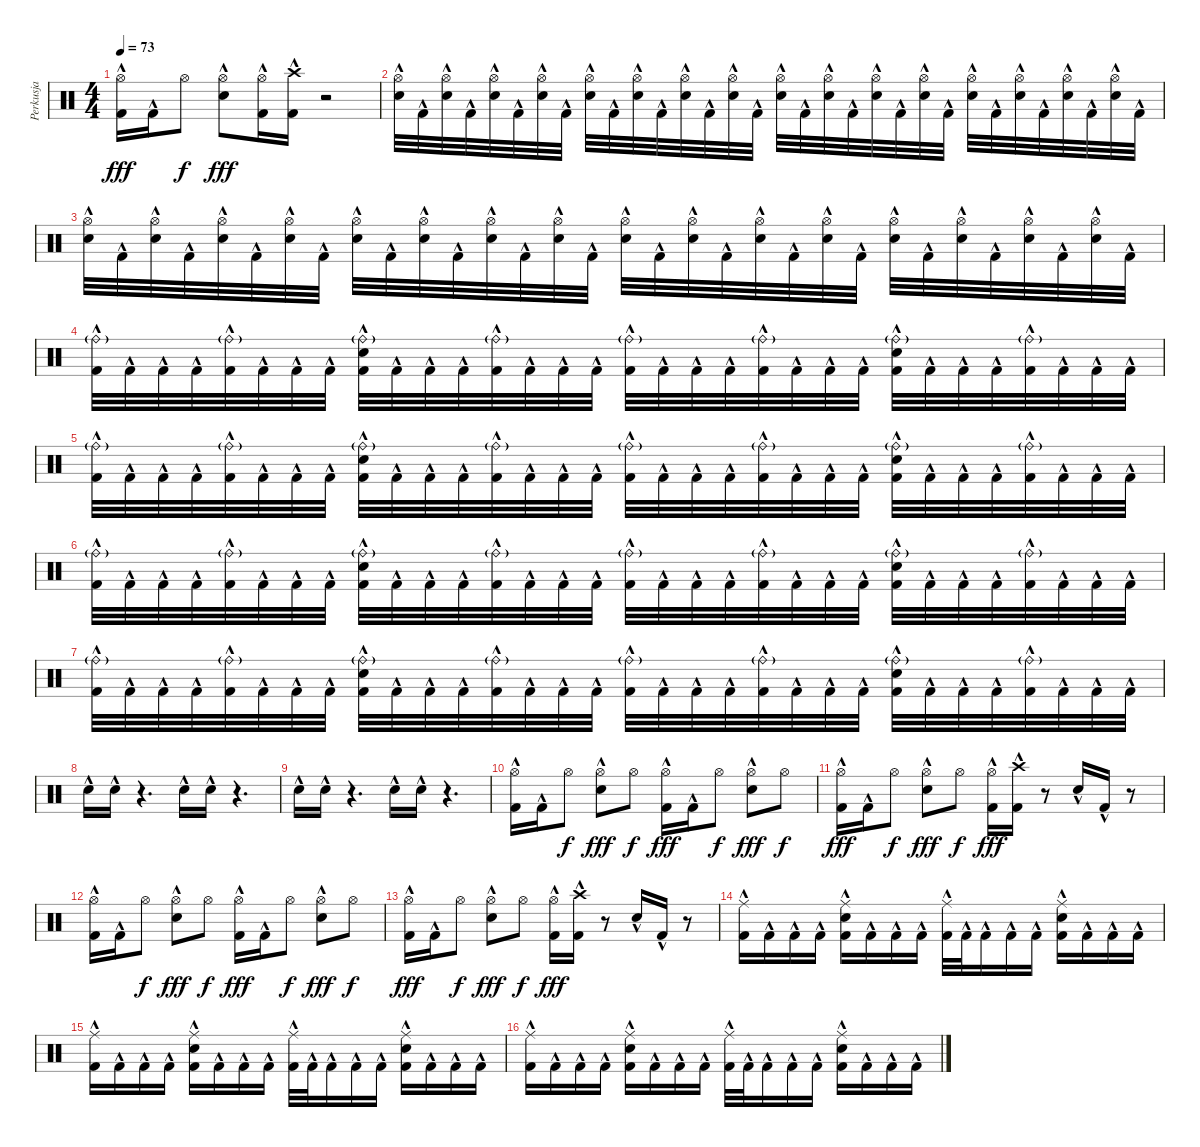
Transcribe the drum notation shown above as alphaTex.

\track ("Perkusja" "Perkusja") {instrument percussion}
\staff {score}
\articulation defaults
\ts (4 4)
\tempo 73
\clef neutral
\ks c
("Hi-Hat (open)" "Kick (hit) 2"{hac}).16{dy fff} "Kick (hit) 2"{hac}.16 "Hi-Hat (open)".8{dy f} ("Hi-Hat (open)" "Electric Snare (hit)"{hac}).8{dy fff} ("Hi-Hat (open)" "Kick (hit) 2"{hac}).16 ("Crash high (hit)" "Kick (hit) 2"{hac}).16 r.2 |
("Hi-Hat (open)" "Electric Snare (hit)"{hac}).32 "Kick (hit) 2"{hac}.32 ("Hi-Hat (open)" "Electric Snare (hit)"{hac}).32 "Kick (hit) 2"{hac}.32 ("Hi-Hat (open)" "Electric Snare (hit)"{hac}).32 "Kick (hit) 2"{hac}.32 ("Hi-Hat (open)" "Electric Snare (hit)"{hac}).32 "Kick (hit) 2"{hac}.32 ("Hi-Hat (open)" "Electric Snare (hit)"{hac}).32 "Kick (hit) 2"{hac}.32 ("Hi-Hat (open)" "Electric Snare (hit)"{hac}).32 "Kick (hit) 2"{hac}.32 ("Hi-Hat (open)" "Electric Snare (hit)"{hac}).32 "Kick (hit) 2"{hac}.32 ("Hi-Hat (open)" "Electric Snare (hit)"{hac}).32 "Kick (hit) 2"{hac}.32 ("Hi-Hat (open)" "Electric Snare (hit)"{hac}).32 "Kick (hit) 2"{hac}.32 ("Hi-Hat (open)" "Electric Snare (hit)"{hac}).32 "Kick (hit) 2"{hac}.32 ("Hi-Hat (open)" "Electric Snare (hit)"{hac}).32 "Kick (hit) 2"{hac}.32 ("Hi-Hat (open)" "Electric Snare (hit)"{hac}).32 "Kick (hit) 2"{hac}.32 ("Hi-Hat (open)" "Electric Snare (hit)"{hac}).32 "Kick (hit) 2"{hac}.32 ("Hi-Hat (open)" "Electric Snare (hit)"{hac}).32 "Kick (hit) 2"{hac}.32 ("Hi-Hat (open)" "Electric Snare (hit)"{hac}).32 "Kick (hit) 2"{hac}.32 ("Hi-Hat (open)" "Electric Snare (hit)"{hac}).32 "Kick (hit) 2"{hac}.32 |
("Hi-Hat (open)" "Electric Snare (hit)"{hac}).32 "Kick (hit) 2"{hac}.32 ("Hi-Hat (open)" "Electric Snare (hit)"{hac}).32 "Kick (hit) 2"{hac}.32 ("Hi-Hat (open)" "Electric Snare (hit)"{hac}).32 "Kick (hit) 2"{hac}.32 ("Hi-Hat (open)" "Electric Snare (hit)"{hac}).32 "Kick (hit) 2"{hac}.32 ("Hi-Hat (open)" "Electric Snare (hit)"{hac}).32 "Kick (hit) 2"{hac}.32 ("Hi-Hat (open)" "Electric Snare (hit)"{hac}).32 "Kick (hit) 2"{hac}.32 ("Hi-Hat (open)" "Electric Snare (hit)"{hac}).32 "Kick (hit) 2"{hac}.32 ("Hi-Hat (open)" "Electric Snare (hit)"{hac}).32 "Kick (hit) 2"{hac}.32 ("Hi-Hat (open)" "Electric Snare (hit)"{hac}).32 "Kick (hit) 2"{hac}.32 ("Hi-Hat (open)" "Electric Snare (hit)"{hac}).32 "Kick (hit) 2"{hac}.32 ("Hi-Hat (open)" "Electric Snare (hit)"{hac}).32 "Kick (hit) 2"{hac}.32 ("Hi-Hat (open)" "Electric Snare (hit)"{hac}).32 "Kick (hit) 2"{hac}.32 ("Hi-Hat (open)" "Electric Snare (hit)"{hac}).32 "Kick (hit) 2"{hac}.32 ("Hi-Hat (open)" "Electric Snare (hit)"{hac}).32 "Kick (hit) 2"{hac}.32 ("Hi-Hat (open)" "Electric Snare (hit)"{hac}).32 "Kick (hit) 2"{hac}.32 ("Hi-Hat (open)" "Electric Snare (hit)"{hac}).32 "Kick (hit) 2"{hac}.32 |
("Ride (bell)"{g} "Kick (hit) 2"{hac}).32 "Kick (hit) 2"{hac}.32 "Kick (hit) 2"{hac}.32 "Kick (hit) 2"{hac}.32 ("Ride (bell)"{g} "Kick (hit) 2"{hac}).32 "Kick (hit) 2"{hac}.32 "Kick (hit) 2"{hac}.32 "Kick (hit) 2"{hac}.32 ("Ride (bell)"{g} "Electric Snare (hit)"{hac} "Kick (hit) 2"{hac}).32 "Kick (hit) 2"{hac}.32 "Kick (hit) 2"{hac}.32 "Kick (hit) 2"{hac}.32 ("Ride (bell)"{g} "Kick (hit) 2"{hac}).32 "Kick (hit) 2"{hac}.32 "Kick (hit) 2"{hac}.32 "Kick (hit) 2"{hac}.32 ("Ride (bell)"{g} "Kick (hit) 2"{hac}).32 "Kick (hit) 2"{hac}.32 "Kick (hit) 2"{hac}.32 "Kick (hit) 2"{hac}.32 ("Ride (bell)"{g} "Kick (hit) 2"{hac}).32 "Kick (hit) 2"{hac}.32 "Kick (hit) 2"{hac}.32 "Kick (hit) 2"{hac}.32 ("Ride (bell)"{g} "Electric Snare (hit)"{hac} "Kick (hit) 2"{hac}).32 "Kick (hit) 2"{hac}.32 "Kick (hit) 2"{hac}.32 "Kick (hit) 2"{hac}.32 ("Ride (bell)"{g} "Kick (hit) 2"{hac}).32 "Kick (hit) 2"{hac}.32 "Kick (hit) 2"{hac}.32 "Kick (hit) 2"{hac}.32 |
("Ride (bell)"{g} "Kick (hit) 2"{hac}).32 "Kick (hit) 2"{hac}.32 "Kick (hit) 2"{hac}.32 "Kick (hit) 2"{hac}.32 ("Ride (bell)"{g} "Kick (hit) 2"{hac}).32 "Kick (hit) 2"{hac}.32 "Kick (hit) 2"{hac}.32 "Kick (hit) 2"{hac}.32 ("Ride (bell)"{g} "Electric Snare (hit)"{hac} "Kick (hit) 2"{hac}).32 "Kick (hit) 2"{hac}.32 "Kick (hit) 2"{hac}.32 "Kick (hit) 2"{hac}.32 ("Ride (bell)"{g} "Kick (hit) 2"{hac}).32 "Kick (hit) 2"{hac}.32 "Kick (hit) 2"{hac}.32 "Kick (hit) 2"{hac}.32 ("Ride (bell)"{g} "Kick (hit) 2"{hac}).32 "Kick (hit) 2"{hac}.32 "Kick (hit) 2"{hac}.32 "Kick (hit) 2"{hac}.32 ("Ride (bell)"{g} "Kick (hit) 2"{hac}).32 "Kick (hit) 2"{hac}.32 "Kick (hit) 2"{hac}.32 "Kick (hit) 2"{hac}.32 ("Ride (bell)"{g} "Electric Snare (hit)"{hac} "Kick (hit) 2"{hac}).32 "Kick (hit) 2"{hac}.32 "Kick (hit) 2"{hac}.32 "Kick (hit) 2"{hac}.32 ("Ride (bell)"{g} "Kick (hit) 2"{hac}).32 "Kick (hit) 2"{hac}.32 "Kick (hit) 2"{hac}.32 "Kick (hit) 2"{hac}.32 |
("Ride (bell)"{g} "Kick (hit) 2"{hac}).32 "Kick (hit) 2"{hac}.32 "Kick (hit) 2"{hac}.32 "Kick (hit) 2"{hac}.32 ("Ride (bell)"{g} "Kick (hit) 2"{hac}).32 "Kick (hit) 2"{hac}.32 "Kick (hit) 2"{hac}.32 "Kick (hit) 2"{hac}.32 ("Ride (bell)"{g} "Electric Snare (hit)"{hac} "Kick (hit) 2"{hac}).32 "Kick (hit) 2"{hac}.32 "Kick (hit) 2"{hac}.32 "Kick (hit) 2"{hac}.32 ("Ride (bell)"{g} "Kick (hit) 2"{hac}).32 "Kick (hit) 2"{hac}.32 "Kick (hit) 2"{hac}.32 "Kick (hit) 2"{hac}.32 ("Ride (bell)"{g} "Kick (hit) 2"{hac}).32 "Kick (hit) 2"{hac}.32 "Kick (hit) 2"{hac}.32 "Kick (hit) 2"{hac}.32 ("Ride (bell)"{g} "Kick (hit) 2"{hac}).32 "Kick (hit) 2"{hac}.32 "Kick (hit) 2"{hac}.32 "Kick (hit) 2"{hac}.32 ("Ride (bell)"{g} "Electric Snare (hit)"{hac} "Kick (hit) 2"{hac}).32 "Kick (hit) 2"{hac}.32 "Kick (hit) 2"{hac}.32 "Kick (hit) 2"{hac}.32 ("Ride (bell)"{g} "Kick (hit) 2"{hac}).32 "Kick (hit) 2"{hac}.32 "Kick (hit) 2"{hac}.32 "Kick (hit) 2"{hac}.32 |
("Ride (bell)"{g} "Kick (hit) 2"{hac}).32 "Kick (hit) 2"{hac}.32 "Kick (hit) 2"{hac}.32 "Kick (hit) 2"{hac}.32 ("Ride (bell)"{g} "Kick (hit) 2"{hac}).32 "Kick (hit) 2"{hac}.32 "Kick (hit) 2"{hac}.32 "Kick (hit) 2"{hac}.32 ("Ride (bell)"{g} "Electric Snare (hit)"{hac} "Kick (hit) 2"{hac}).32 "Kick (hit) 2"{hac}.32 "Kick (hit) 2"{hac}.32 "Kick (hit) 2"{hac}.32 ("Ride (bell)"{g} "Kick (hit) 2"{hac}).32 "Kick (hit) 2"{hac}.32 "Kick (hit) 2"{hac}.32 "Kick (hit) 2"{hac}.32 ("Ride (bell)"{g} "Kick (hit) 2"{hac}).32 "Kick (hit) 2"{hac}.32 "Kick (hit) 2"{hac}.32 "Kick (hit) 2"{hac}.32 ("Ride (bell)"{g} "Kick (hit) 2"{hac}).32 "Kick (hit) 2"{hac}.32 "Kick (hit) 2"{hac}.32 "Kick (hit) 2"{hac}.32 ("Ride (bell)"{g} "Electric Snare (hit)"{hac} "Kick (hit) 2"{hac}).32 "Kick (hit) 2"{hac}.32 "Kick (hit) 2"{hac}.32 "Kick (hit) 2"{hac}.32 ("Ride (bell)"{g} "Kick (hit) 2"{hac}).32 "Kick (hit) 2"{hac}.32 "Kick (hit) 2"{hac}.32 "Kick (hit) 2"{hac}.32 |
"Electric Snare (hit)"{hac}.16 "Electric Snare (hit)"{hac}.16 r.4{d} "Electric Snare (hit)"{hac}.16 "Electric Snare (hit)"{hac}.16 r.4{d} |
"Electric Snare (hit)"{hac}.16 "Electric Snare (hit)"{hac}.16 r.4{d} "Electric Snare (hit)"{hac}.16 "Electric Snare (hit)"{hac}.16 r.4{d} |
("Hi-Hat (open)" "Kick (hit) 2"{hac}).16 "Kick (hit) 2"{hac}.16 "Hi-Hat (open)".8{dy f} ("Hi-Hat (open)" "Electric Snare (hit)"{hac}).8{dy fff} "Hi-Hat (open)".8{dy f} ("Hi-Hat (open)" "Kick (hit) 2"{hac}).16{dy fff} "Kick (hit) 2"{hac}.16 "Hi-Hat (open)".8{dy f} ("Hi-Hat (open)" "Electric Snare (hit)"{hac}).8{dy fff} "Hi-Hat (open)".8{dy f} |
("Hi-Hat (open)" "Kick (hit) 2"{hac}).16{dy fff} "Kick (hit) 2"{hac}.16 "Hi-Hat (open)".8{dy f} ("Hi-Hat (open)" "Electric Snare (hit)"{hac}).8{dy fff} "Hi-Hat (open)".8{dy f} ("Hi-Hat (open)" "Kick (hit) 2"{hac}).16{dy fff} ("Crash high (hit)" "Kick (hit) 2"{hac}).16 r.8 "Electric Snare (hit)"{hac}.16 "Kick (hit) 2"{hac}.16 r.8 |
("Hi-Hat (open)" "Kick (hit) 2"{hac}).16 "Kick (hit) 2"{hac}.16 "Hi-Hat (open)".8{dy f} ("Hi-Hat (open)" "Electric Snare (hit)"{hac}).8{dy fff} "Hi-Hat (open)".8{dy f} ("Hi-Hat (open)" "Kick (hit) 2"{hac}).16{dy fff} "Kick (hit) 2"{hac}.16 "Hi-Hat (open)".8{dy f} ("Hi-Hat (open)" "Electric Snare (hit)"{hac}).8{dy fff} "Hi-Hat (open)".8{dy f} |
("Hi-Hat (open)" "Kick (hit) 2"{hac}).16{dy fff} "Kick (hit) 2"{hac}.16 "Hi-Hat (open)".8{dy f} ("Hi-Hat (open)" "Electric Snare (hit)"{hac}).8{dy fff} "Hi-Hat (open)".8{dy f} ("Hi-Hat (open)" "Kick (hit) 2"{hac}).16{dy fff} ("Crash high (hit)" "Kick (hit) 2"{hac}).16 r.8 "Electric Snare (hit)"{hac}.16 "Kick (hit) 2"{hac}.16 r.8 |
("Ride (middle)" "Kick (hit) 2"{hac}).16 "Kick (hit) 2"{hac}.16 "Kick (hit) 2"{hac}.16 "Kick (hit) 2"{hac}.16 ("Ride (middle)" "Electric Snare (hit)"{hac} "Kick (hit) 2"{hac}).16 "Kick (hit) 2"{hac}.16 "Kick (hit) 2"{hac}.16 "Kick (hit) 2"{hac}.16 ("Ride (middle)" "Kick (hit) 2"{hac}).32 "Kick (hit) 2"{hac}.32 "Kick (hit) 2"{hac}.16 "Kick (hit) 2"{hac}.16 "Kick (hit) 2"{hac}.16 ("Ride (middle)" "Electric Snare (hit)"{hac} "Kick (hit) 2"{hac}).16 "Kick (hit) 2"{hac}.16 "Kick (hit) 2"{hac}.16 "Kick (hit) 2"{hac}.16 |
("Ride (middle)" "Kick (hit) 2"{hac}).16 "Kick (hit) 2"{hac}.16 "Kick (hit) 2"{hac}.16 "Kick (hit) 2"{hac}.16 ("Ride (middle)" "Electric Snare (hit)"{hac} "Kick (hit) 2"{hac}).16 "Kick (hit) 2"{hac}.16 "Kick (hit) 2"{hac}.16 "Kick (hit) 2"{hac}.16 ("Ride (middle)" "Kick (hit) 2"{hac}).32 "Kick (hit) 2"{hac}.32 "Kick (hit) 2"{hac}.16 "Kick (hit) 2"{hac}.16 "Kick (hit) 2"{hac}.16 ("Ride (middle)" "Electric Snare (hit)"{hac} "Kick (hit) 2"{hac}).16 "Kick (hit) 2"{hac}.16 "Kick (hit) 2"{hac}.16 "Kick (hit) 2"{hac}.16 |
("Ride (middle)" "Kick (hit) 2"{hac}).16 "Kick (hit) 2"{hac}.16 "Kick (hit) 2"{hac}.16 "Kick (hit) 2"{hac}.16 ("Ride (middle)" "Electric Snare (hit)"{hac} "Kick (hit) 2"{hac}).16 "Kick (hit) 2"{hac}.16 "Kick (hit) 2"{hac}.16 "Kick (hit) 2"{hac}.16 ("Ride (middle)" "Kick (hit) 2"{hac}).32 "Kick (hit) 2"{hac}.32 "Kick (hit) 2"{hac}.16 "Kick (hit) 2"{hac}.16 "Kick (hit) 2"{hac}.16 ("Ride (middle)" "Electric Snare (hit)"{hac} "Kick (hit) 2"{hac}).16 "Kick (hit) 2"{hac}.16 "Kick (hit) 2"{hac}.16 "Kick (hit) 2"{hac}.16
